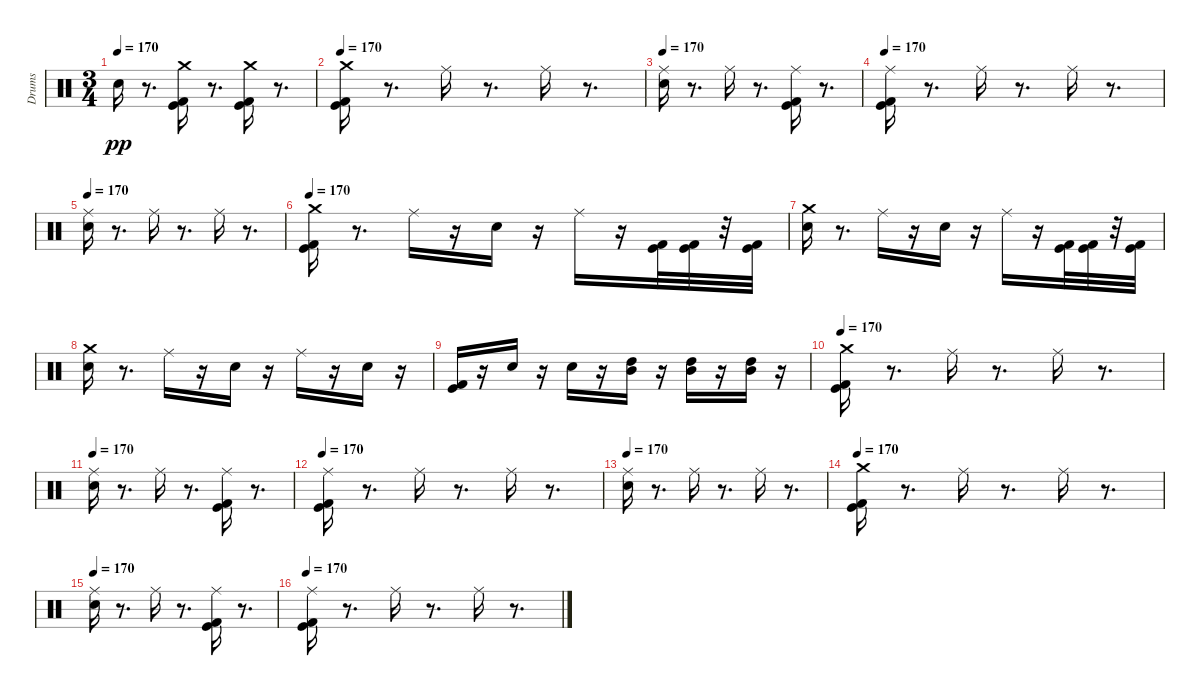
\track ("Drums" "Drums") {instrument percussion}
\staff {score}
\articulation defaults
\ts (3 4)
\tempo 170
\clef neutral
\ks c "Snare (hit) 2".16{dy pp}
r.8{d} ("Crash medium (hit)" "Kick (hit)" "Kick (hit) 2").16 r.8{d} ("Crash medium (hit)" "Kick (hit)" "Kick (hit) 2").16 r.8{d} |
\tempo 170
("Crash medium (hit)" "Kick (hit) 2" "Kick (hit)").16 r.8{d} "Ride (middle)".16 r.8{d} "Ride (middle)".16 r.8{d} |
\tempo 170
("Ride (middle)" "Snare (hit) 2").16 r.8{d} "Ride (middle)".16 r.8{d} ("Ride (middle)" "Kick (hit) 2" "Kick (hit)").16 r.8{d} |
\tempo 170
("Ride (middle)" "Kick (hit) 2" "Kick (hit)").16 r.8{d} "Ride (middle)".16 r.8{d} "Ride (middle)".16 r.8{d} |
\tempo 170
("Ride (middle)" "Snare (hit) 2").16 r.8{d} "Ride (middle)".16 r.8{d} "Ride (middle)".16 r.8{d} |
\tempo 170
("Crash medium (hit)" "Kick (hit) 2" "Kick (hit)").16 r.8{d} "Ride (middle)".16 r.16 "Snare (hit) 2".16 r.16 "Ride (middle)".16 r.16 ("Kick (hit)" "Kick (hit) 2").32 ("Kick (hit)" "Kick (hit) 2").32 r.32 ("Kick (hit)" "Kick (hit) 2").32 |
("Snare (hit) 2" "Crash medium (hit)").16 r.8{d} "Ride (middle)".16 r.16 "Snare (hit) 2".16 r.16 "Ride (middle)".16 r.16 ("Kick (hit)" "Kick (hit) 2").32 ("Kick (hit)" "Kick (hit) 2").32 r.32 ("Kick (hit)" "Kick (hit) 2").32 |
("Snare (hit) 2" "Crash medium (hit)").16 r.8{d} "Ride (middle)".16 r.16 "Snare (hit) 2".16 r.16 "Ride (middle)".16 r.16 "Snare (hit) 2".16 r.16 |
("Kick (hit) 2" "Kick (hit)").16 r.16 "Snare (hit) 2".16 r.16 "Snare (hit) 2".16 r.16 ("High Tom (hit)" "Mid Tom (hit)").16 r.16 ("High Tom (hit)" "Mid Tom (hit)").16 r.16 ("High Tom (hit)" "Mid Tom (hit)").16 r.16 |
\tempo 170
("Crash medium (hit)" "Kick (hit) 2" "Kick (hit)").16 r.8{d} "Ride (middle)".16 r.8{d} "Ride (middle)".16 r.8{d} |
\tempo 170
("Ride (middle)" "Snare (hit) 2").16 r.8{d} "Ride (middle)".16 r.8{d} ("Ride (middle)" "Kick (hit) 2" "Kick (hit)").16 r.8{d} |
\tempo 170
("Ride (middle)" "Kick (hit) 2" "Kick (hit)").16 r.8{d} "Ride (middle)".16 r.8{d} "Ride (middle)".16 r.8{d} |
\tempo 170
("Ride (middle)" "Snare (hit) 2").16 r.8{d} "Ride (middle)".16 r.8{d} "Ride (middle)".16 r.8{d} |
\tempo 170
("Crash medium (hit)" "Kick (hit) 2" "Kick (hit)").16 r.8{d} "Ride (middle)".16 r.8{d} "Ride (middle)".16 r.8{d} |
\tempo 170
("Ride (middle)" "Snare (hit) 2").16 r.8{d} "Ride (middle)".16 r.8{d} ("Ride (middle)" "Kick (hit) 2" "Kick (hit)").16 r.8{d} |
\tempo 170
("Ride (middle)" "Kick (hit) 2" "Kick (hit)").16 r.8{d} "Ride (middle)".16 r.8{d} "Ride (middle)".16 r.8{d}
